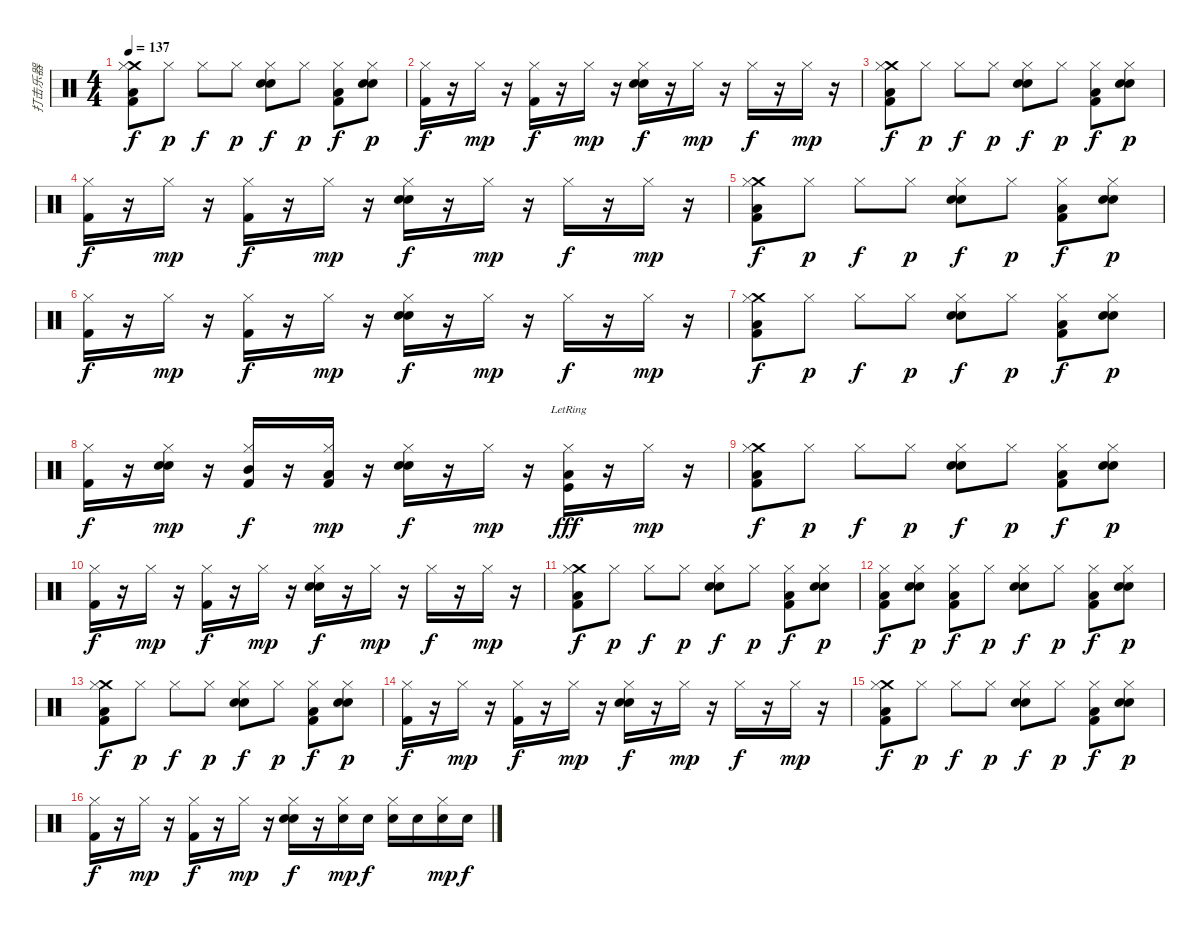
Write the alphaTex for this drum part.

\track ("打击乐器" "打击乐器") {instrument percussion}
\staff {score}
\articulation defaults
\ts (4 4)
\tempo 137
\clef neutral
\ks c
("Low Floor Tom (hit)" "Kick (hit) 2" "Crash medium (hit)" "Hi-Hat (closed)").8{dy f} "Hi-Hat (closed)".8{dy p} "Hi-Hat (closed)".8{dy f} "Hi-Hat (closed)".8{dy p} ("Hand Clap (hit)" "Electric Snare (hit)" "Hi-Hat (closed)").8{dy f} "Hi-Hat (closed)".8{dy p} ("Low Floor Tom (hit)" "Kick (hit) 2" "Hi-Hat (closed)").8{dy f} ("Hand Clap (hit)" "Electric Snare (hit)" "Hi-Hat (closed)").8{dy p} |
("Kick (hit) 2" "Hi-Hat (closed)").16{dy f} r.16 "Hi-Hat (closed)".16{dy mp} r.16 ("Kick (hit) 2" "Hi-Hat (closed)").16{dy f} r.16 "Hi-Hat (closed)".16{dy mp} r.16 ("Hand Clap (hit)" "Electric Snare (hit)" "Hi-Hat (closed)").16{dy f} r.16 "Hi-Hat (closed)".16{dy mp} r.16 "Hi-Hat (closed)".16{dy f} r.16 "Hi-Hat (closed)".16{dy mp} r.16 |
("Low Floor Tom (hit)" "Kick (hit) 2" "Crash medium (hit)" "Hi-Hat (closed)").8{dy f} "Hi-Hat (closed)".8{dy p} "Hi-Hat (closed)".8{dy f} "Hi-Hat (closed)".8{dy p} ("Hand Clap (hit)" "Electric Snare (hit)" "Hi-Hat (closed)").8{dy f} "Hi-Hat (closed)".8{dy p} ("Low Floor Tom (hit)" "Kick (hit) 2" "Hi-Hat (closed)").8{dy f} ("Hand Clap (hit)" "Electric Snare (hit)" "Hi-Hat (closed)").8{dy p} |
("Kick (hit) 2" "Hi-Hat (closed)").16{dy f} r.16 "Hi-Hat (closed)".16{dy mp} r.16 ("Kick (hit) 2" "Hi-Hat (closed)").16{dy f} r.16 "Hi-Hat (closed)".16{dy mp} r.16 ("Hand Clap (hit)" "Electric Snare (hit)" "Hi-Hat (closed)").16{dy f} r.16 "Hi-Hat (closed)".16{dy mp} r.16 "Hi-Hat (closed)".16{dy f} r.16 "Hi-Hat (closed)".16{dy mp} r.16 |
("Low Floor Tom (hit)" "Kick (hit) 2" "Crash medium (hit)" "Hi-Hat (closed)").8{dy f} "Hi-Hat (closed)".8{dy p} "Hi-Hat (closed)".8{dy f} "Hi-Hat (closed)".8{dy p} ("Hand Clap (hit)" "Electric Snare (hit)" "Hi-Hat (closed)").8{dy f} "Hi-Hat (closed)".8{dy p} ("Low Floor Tom (hit)" "Kick (hit) 2" "Hi-Hat (closed)").8{dy f} ("Hand Clap (hit)" "Electric Snare (hit)" "Hi-Hat (closed)").8{dy p} |
("Kick (hit) 2" "Hi-Hat (closed)").16{dy f} r.16 "Hi-Hat (closed)".16{dy mp} r.16 ("Kick (hit) 2" "Hi-Hat (closed)").16{dy f} r.16 "Hi-Hat (closed)".16{dy mp} r.16 ("Hand Clap (hit)" "Electric Snare (hit)" "Hi-Hat (closed)").16{dy f} r.16 "Hi-Hat (closed)".16{dy mp} r.16 "Hi-Hat (closed)".16{dy f} r.16 "Hi-Hat (closed)".16{dy mp} r.16 |
("Low Floor Tom (hit)" "Kick (hit) 2" "Crash medium (hit)" "Hi-Hat (closed)").8{dy f} "Hi-Hat (closed)".8{dy p} "Hi-Hat (closed)".8{dy f} "Hi-Hat (closed)".8{dy p} ("Hand Clap (hit)" "Electric Snare (hit)" "Hi-Hat (closed)").8{dy f} "Hi-Hat (closed)".8{dy p} ("Low Floor Tom (hit)" "Kick (hit) 2" "Hi-Hat (closed)").8{dy f} ("Hand Clap (hit)" "Electric Snare (hit)" "Hi-Hat (closed)").8{dy p} |
("Kick (hit) 2" "Hi-Hat (closed)").16{dy f} r.16 ("Hand Clap (hit)" "Electric Snare (hit)" "Hi-Hat (closed)").16{dy mp} r.16 ("Mid Tom (hit)" "Kick (hit) 2" "Hi-Hat (closed)").16{dy f} r.16 ("Low Tom (hit)" "Kick (hit) 2" "Hi-Hat (closed)").16{dy mp} r.16 ("Hand Clap (hit)" "Electric Snare (hit)" "Hi-Hat (closed)").16{dy f} r.16 "Hi-Hat (closed)".16{dy mp} r.16 ("Low Tom (hit)"{lr} "Kick (hit)" "Hi-Hat (closed)").16{dy fff} r.16 "Hi-Hat (closed)".16{dy mp} r.16 |
("Low Floor Tom (hit)" "Kick (hit) 2" "Crash medium (hit)" "Hi-Hat (closed)").8{dy f} "Hi-Hat (closed)".8{dy p} "Hi-Hat (closed)".8{dy f} "Hi-Hat (closed)".8{dy p} ("Hand Clap (hit)" "Electric Snare (hit)" "Hi-Hat (closed)").8{dy f} "Hi-Hat (closed)".8{dy p} ("Low Floor Tom (hit)" "Kick (hit) 2" "Hi-Hat (closed)").8{dy f} ("Hand Clap (hit)" "Electric Snare (hit)" "Hi-Hat (closed)").8{dy p} |
("Kick (hit) 2" "Hi-Hat (closed)").16{dy f} r.16 "Hi-Hat (closed)".16{dy mp} r.16 ("Kick (hit) 2" "Hi-Hat (closed)").16{dy f} r.16 "Hi-Hat (closed)".16{dy mp} r.16 ("Hand Clap (hit)" "Electric Snare (hit)" "Hi-Hat (closed)").16{dy f} r.16 "Hi-Hat (closed)".16{dy mp} r.16 "Hi-Hat (closed)".16{dy f} r.16 "Hi-Hat (closed)".16{dy mp} r.16 |
("Low Floor Tom (hit)" "Kick (hit) 2" "Crash medium (hit)" "Hi-Hat (closed)").8{dy f} "Hi-Hat (closed)".8{dy p} "Hi-Hat (closed)".8{dy f} "Hi-Hat (closed)".8{dy p} ("Hand Clap (hit)" "Electric Snare (hit)" "Hi-Hat (closed)").8{dy f} "Hi-Hat (closed)".8{dy p} ("Low Floor Tom (hit)" "Kick (hit) 2" "Hi-Hat (closed)").8{dy f} ("Hand Clap (hit)" "Electric Snare (hit)" "Hi-Hat (closed)").8{dy p} |
("Low Floor Tom (hit)" "Kick (hit) 2" "Hi-Hat (closed)").8{dy f} ("Hand Clap (hit)" "Electric Snare (hit)" "Hi-Hat (closed)").8{dy p} ("Low Floor Tom (hit)" "Kick (hit) 2" "Hi-Hat (closed)").8{dy f} "Hi-Hat (closed)".8{dy p} ("Hand Clap (hit)" "Electric Snare (hit)" "Hi-Hat (closed)").8{dy f} "Hi-Hat (closed)".8{dy p} ("Low Floor Tom (hit)" "Kick (hit) 2" "Hi-Hat (closed)").8{dy f} ("Hand Clap (hit)" "Electric Snare (hit)" "Hi-Hat (closed)").8{dy p} |
("Low Floor Tom (hit)" "Kick (hit) 2" "Crash medium (hit)" "Hi-Hat (closed)").8{dy f} "Hi-Hat (closed)".8{dy p} "Hi-Hat (closed)".8{dy f} "Hi-Hat (closed)".8{dy p} ("Hand Clap (hit)" "Electric Snare (hit)" "Hi-Hat (closed)").8{dy f} "Hi-Hat (closed)".8{dy p} ("Low Floor Tom (hit)" "Kick (hit) 2" "Hi-Hat (closed)").8{dy f} ("Hand Clap (hit)" "Electric Snare (hit)" "Hi-Hat (closed)").8{dy p} |
("Kick (hit) 2" "Hi-Hat (closed)").16{dy f} r.16 "Hi-Hat (closed)".16{dy mp} r.16 ("Kick (hit) 2" "Hi-Hat (closed)").16{dy f} r.16 "Hi-Hat (closed)".16{dy mp} r.16 ("Hand Clap (hit)" "Electric Snare (hit)" "Hi-Hat (closed)").16{dy f} r.16 "Hi-Hat (closed)".16{dy mp} r.16 "Hi-Hat (closed)".16{dy f} r.16 "Hi-Hat (closed)".16{dy mp} r.16 |
("Low Floor Tom (hit)" "Kick (hit) 2" "Crash medium (hit)" "Hi-Hat (closed)").8{dy f} "Hi-Hat (closed)".8{dy p} "Hi-Hat (closed)".8{dy f} "Hi-Hat (closed)".8{dy p} ("Hand Clap (hit)" "Electric Snare (hit)" "Hi-Hat (closed)").8{dy f} "Hi-Hat (closed)".8{dy p} ("Low Floor Tom (hit)" "Kick (hit) 2" "Hi-Hat (closed)").8{dy f} ("Hand Clap (hit)" "Electric Snare (hit)" "Hi-Hat (closed)").8{dy p} |
("Kick (hit) 2" "Hi-Hat (closed)").16{dy f} r.16 "Hi-Hat (closed)".16{dy mp} r.16 ("Kick (hit) 2" "Hi-Hat (closed)").16{dy f} r.16 "Hi-Hat (closed)".16{dy mp} r.16 ("Hand Clap (hit)" "Electric Snare (hit)" "Hi-Hat (closed)").16{dy f} r.16 ("Electric Snare (hit)" "Hi-Hat (closed)").16{dy mp} "Electric Snare (hit)".16{dy f} ("Electric Snare (hit)" "Hi-Hat (closed)").16 "Electric Snare (hit)".16 ("Electric Snare (hit)" "Hi-Hat (closed)").16{dy mp} "Electric Snare (hit)".16{dy f}
